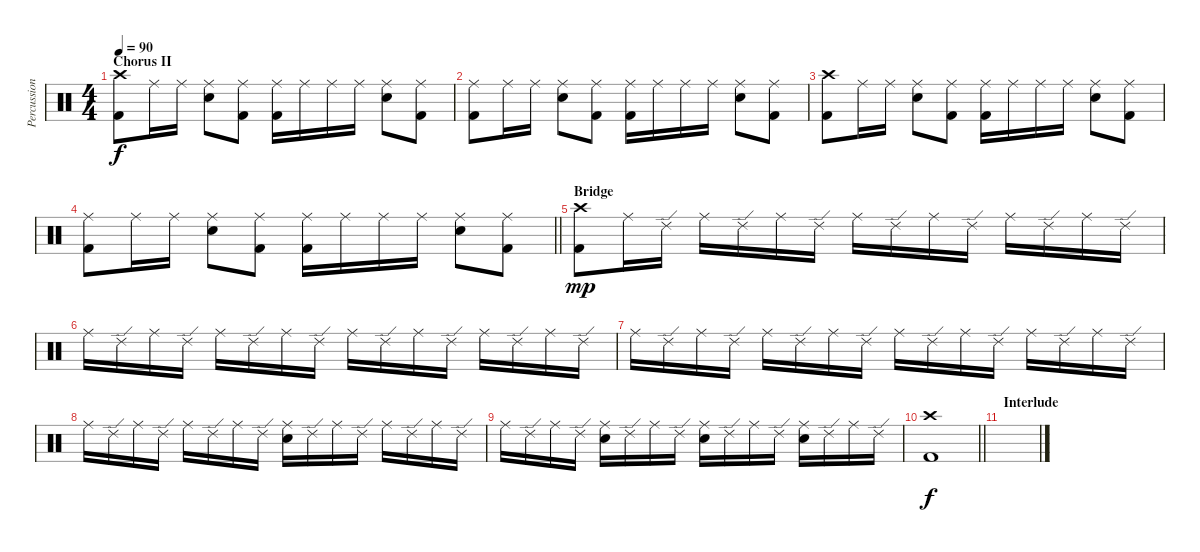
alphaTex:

\track ("Percussions" "Percussion") {instrument percussion}
\staff {score}
\articulation defaults
\ts (4 4)
\section ("" "Chorus II")
\tempo 90
\clef neutral
\ks c
("Crash high (hit)" "Kick (hit) 2").8{dy f} "Ride (middle)".16 "Ride (middle)".16 ("Ride (middle)" "Electric Snare (hit)").8 ("Ride (middle)" "Kick (hit) 2").8 ("Ride (middle)" "Kick (hit) 2").16 "Ride (middle)".16 "Ride (middle)".16 "Ride (middle)".16 ("Ride (middle)" "Electric Snare (hit)").8 ("Ride (middle)" "Kick (hit) 2").8 |
("Ride (middle)" "Kick (hit) 2").8 "Ride (middle)".16 "Ride (middle)".16 ("Ride (middle)" "Electric Snare (hit)").8 ("Ride (middle)" "Kick (hit) 2").8 ("Ride (middle)" "Kick (hit) 2").16 "Ride (middle)".16 "Ride (middle)".16 "Ride (middle)".16 ("Ride (middle)" "Electric Snare (hit)").8 ("Ride (middle)" "Kick (hit) 2").8 |
("Crash high (hit)" "Kick (hit) 2").8 "Ride (middle)".16 "Ride (middle)".16 ("Ride (middle)" "Electric Snare (hit)").8 ("Ride (middle)" "Kick (hit) 2").8 ("Ride (middle)" "Kick (hit) 2").16 "Ride (middle)".16 "Ride (middle)".16 "Ride (middle)".16 ("Ride (middle)" "Electric Snare (hit)").8 ("Ride (middle)" "Kick (hit) 2").8 |
\barLineRight lightlight
("Ride (middle)" "Kick (hit) 2").8 "Ride (middle)".16 "Ride (middle)".16 ("Ride (middle)" "Electric Snare (hit)").8 ("Ride (middle)" "Kick (hit) 2").8 ("Ride (middle)" "Kick (hit) 2").16 "Ride (middle)".16 "Ride (middle)".16 "Ride (middle)".16 ("Ride (middle)" "Electric Snare (hit)").8 ("Ride (middle)" "Kick (hit) 2").8 |
\section ("" "Bridge")
("Crash high (hit)" "Kick (hit) 2").8{dy mp} "Ride (middle)".16 "Ride (edge) 2".16 "Ride (middle)".16 "Ride (edge) 2".16 "Ride (middle)".16 "Ride (edge) 2".16 "Ride (middle)".16 "Ride (edge) 2".16 "Ride (middle)".16 "Ride (edge) 2".16 "Ride (middle)".16 "Ride (edge) 2".16 "Ride (middle)".16 "Ride (edge) 2".16 |
"Ride (middle)".16 "Ride (edge) 2".16 "Ride (middle)".16 "Ride (edge) 2".16 "Ride (middle)".16 "Ride (edge) 2".16 "Ride (middle)".16 "Ride (edge) 2".16 "Ride (middle)".16 "Ride (edge) 2".16 "Ride (middle)".16 "Ride (edge) 2".16 "Ride (middle)".16 "Ride (edge) 2".16 "Ride (middle)".16 "Ride (edge) 2".16 |
"Ride (middle)".16 "Ride (edge) 2".16 "Ride (middle)".16 "Ride (edge) 2".16 "Ride (middle)".16 "Ride (edge) 2".16 "Ride (middle)".16 "Ride (edge) 2".16 "Ride (middle)".16 "Ride (edge) 2".16 "Ride (middle)".16 "Ride (edge) 2".16 "Ride (middle)".16 "Ride (edge) 2".16 "Ride (middle)".16 "Ride (edge) 2".16 |
"Ride (middle)".16 "Ride (edge) 2".16 "Ride (middle)".16 "Ride (edge) 2".16 "Ride (middle)".16 "Ride (edge) 2".16 "Ride (middle)".16 "Ride (edge) 2".16 ("Ride (middle)" "Electric Snare (hit)").16 "Ride (edge) 2".16 "Ride (middle)".16 "Ride (edge) 2".16 "Ride (middle)".16 "Ride (edge) 2".16 "Ride (middle)".16 "Ride (edge) 2".16 |
"Ride (middle)".16 "Ride (edge) 2".16 "Ride (middle)".16 "Ride (edge) 2".16 ("Ride (middle)" "Electric Snare (hit)").16 "Ride (edge) 2".16 "Ride (middle)".16 "Ride (edge) 2".16 ("Ride (middle)" "Electric Snare (hit)").16 "Ride (edge) 2".16 "Ride (middle)".16 "Ride (edge) 2".16 ("Ride (middle)" "Electric Snare (hit)").16 "Ride (edge) 2".16 "Ride (middle)".16 "Ride (edge) 2".16 |
\barLineRight lightlight
("Crash high (hit)" "Kick (hit) 2").1{dy f} |
\section ("" "Interlude")
